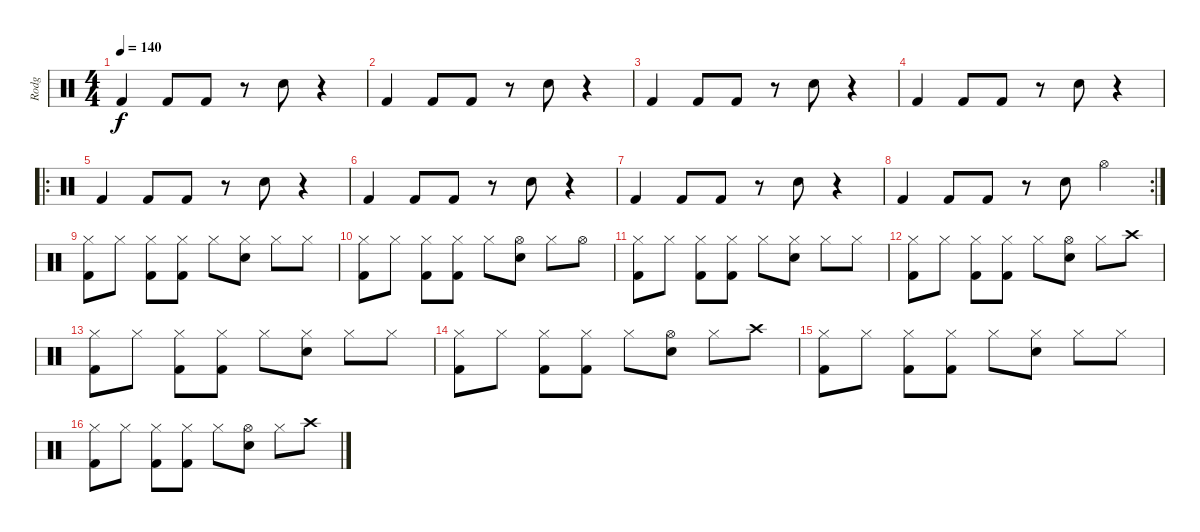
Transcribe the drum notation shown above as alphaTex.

\track ("Rodg" "Rodg") {instrument percussion}
\staff {score}
\articulation defaults
\ts (4 4)
\tempo 140
\clef neutral
\ks c "Kick (hit) 2".4{dy f} "Kick (hit) 2".8 "Kick (hit) 2".8
r.8 "Electric Snare (hit)".8 r.4 |
"Kick (hit) 2".4 "Kick (hit) 2".8 "Kick (hit) 2".8 r.8 "Electric Snare (hit)".8 r.4 |
"Kick (hit) 2".4 "Kick (hit) 2".8 "Kick (hit) 2".8 r.8 "Electric Snare (hit)".8 r.4 |
"Kick (hit) 2".4 "Kick (hit) 2".8 "Kick (hit) 2".8 r.8 "Electric Snare (hit)".8 r.4 |
\ro "Kick (hit) 2".4 "Kick (hit) 2".8 "Kick (hit) 2".8
r.8 "Electric Snare (hit)".8 r.4 |
"Kick (hit) 2".4 "Kick (hit) 2".8 "Kick (hit) 2".8 r.8 "Electric Snare (hit)".8 r.4 |
"Kick (hit) 2".4 "Kick (hit) 2".8 "Kick (hit) 2".8 r.8 "Electric Snare (hit)".8 r.4 |
\rc 2 "Kick (hit) 2".4 "Kick (hit) 2".8 "Kick (hit) 2".8
r.8 "Electric Snare (hit)".8 "Hi-Hat (open)".4 |
("Hi-Hat (closed)" "Kick (hit) 2").8 "Hi-Hat (closed)".8 ("Hi-Hat (closed)" "Kick (hit) 2").8 ("Hi-Hat (closed)" "Kick (hit) 2").8 "Hi-Hat (closed)".8 ("Hi-Hat (closed)" "Electric Snare (hit)").8 "Hi-Hat (closed)".8 "Hi-Hat (closed)".8 |
("Hi-Hat (closed)" "Kick (hit) 2").8 "Hi-Hat (closed)".8 ("Hi-Hat (closed)" "Kick (hit) 2").8 ("Hi-Hat (closed)" "Kick (hit) 2").8 "Hi-Hat (closed)".8 ("Hi-Hat (open)" "Electric Snare (hit)").8 "Hi-Hat (closed)".8 "Hi-Hat (open)".8 |
("Hi-Hat (closed)" "Kick (hit) 2").8 "Hi-Hat (closed)".8 ("Hi-Hat (closed)" "Kick (hit) 2").8 ("Hi-Hat (closed)" "Kick (hit) 2").8 "Hi-Hat (closed)".8 ("Hi-Hat (closed)" "Electric Snare (hit)").8 "Hi-Hat (closed)".8 "Hi-Hat (closed)".8 |
("Hi-Hat (closed)" "Kick (hit) 2").8 "Hi-Hat (closed)".8 ("Hi-Hat (closed)" "Kick (hit) 2").8 ("Hi-Hat (closed)" "Kick (hit) 2").8 "Hi-Hat (closed)".8 ("Hi-Hat (open)" "Electric Snare (hit)").8 "Hi-Hat (closed)".8 "Crash high (hit)".8 |
("Hi-Hat (closed)" "Kick (hit) 2").8 "Hi-Hat (closed)".8 ("Hi-Hat (closed)" "Kick (hit) 2").8 ("Hi-Hat (closed)" "Kick (hit) 2").8 "Hi-Hat (closed)".8 ("Hi-Hat (closed)" "Electric Snare (hit)").8 "Hi-Hat (closed)".8 "Hi-Hat (closed)".8 |
("Hi-Hat (closed)" "Kick (hit) 2").8 "Hi-Hat (closed)".8 ("Hi-Hat (closed)" "Kick (hit) 2").8 ("Hi-Hat (closed)" "Kick (hit) 2").8 "Hi-Hat (closed)".8 ("Hi-Hat (open)" "Electric Snare (hit)").8 "Hi-Hat (closed)".8 "Crash high (hit)".8 |
("Hi-Hat (closed)" "Kick (hit) 2").8 "Hi-Hat (closed)".8 ("Hi-Hat (closed)" "Kick (hit) 2").8 ("Hi-Hat (closed)" "Kick (hit) 2").8 "Hi-Hat (closed)".8 ("Hi-Hat (closed)" "Electric Snare (hit)").8 "Hi-Hat (closed)".8 "Hi-Hat (closed)".8 |
("Hi-Hat (closed)" "Kick (hit) 2").8 "Hi-Hat (closed)".8 ("Hi-Hat (closed)" "Kick (hit) 2").8 ("Hi-Hat (closed)" "Kick (hit) 2").8 "Hi-Hat (closed)".8 ("Hi-Hat (open)" "Electric Snare (hit)").8 "Hi-Hat (closed)".8 "Crash high (hit)".8
